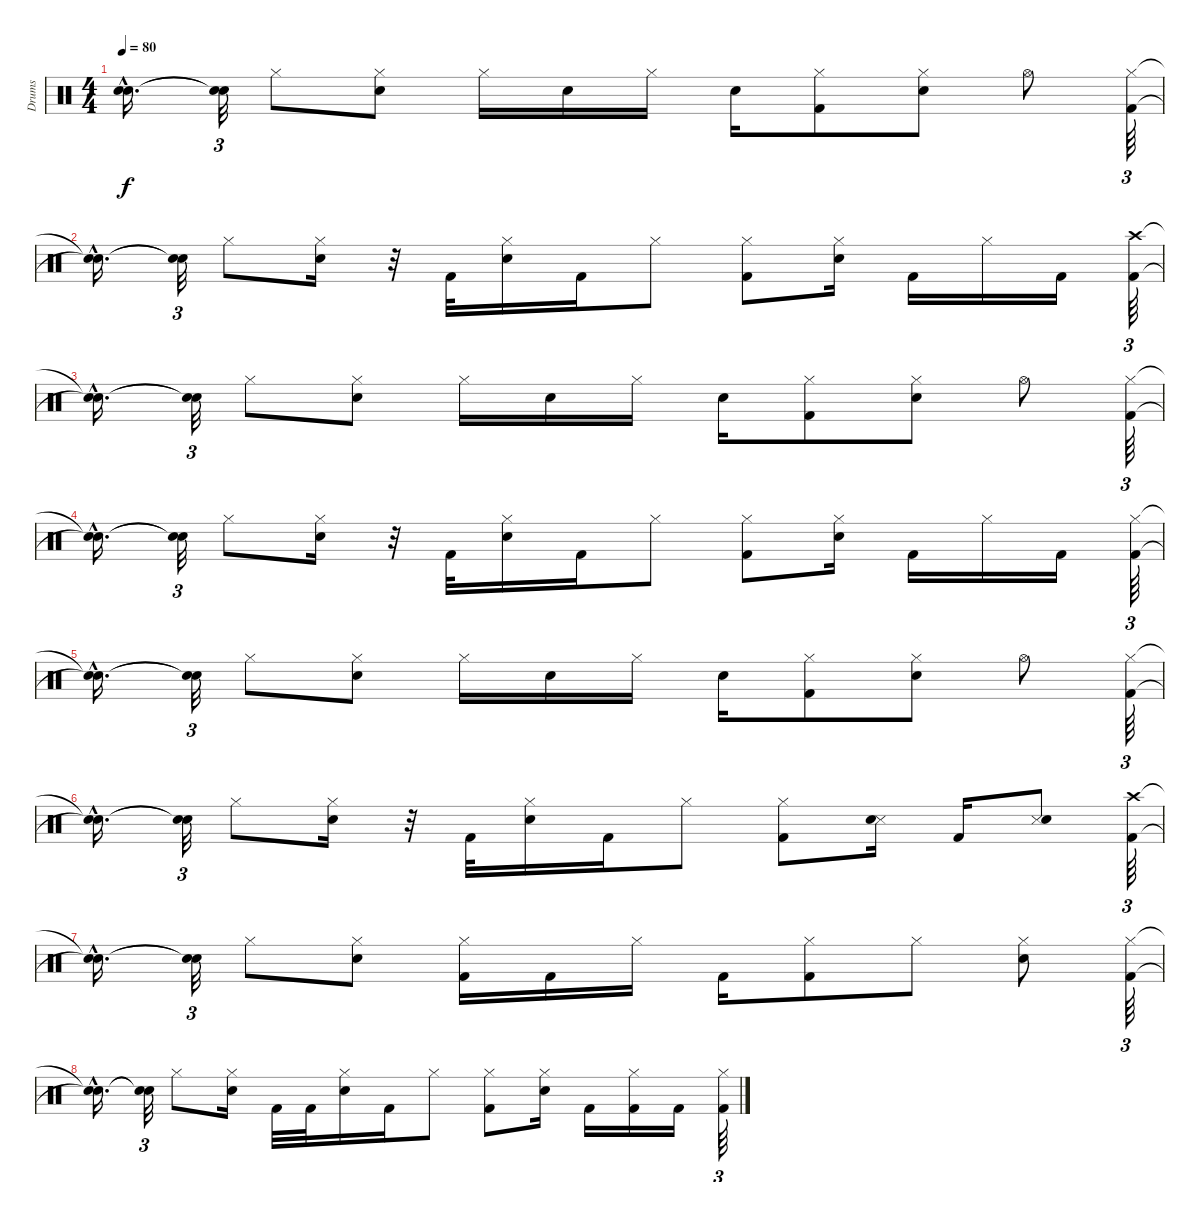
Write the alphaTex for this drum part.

\track ("Drums" "Drums") {instrument percussion}
\staff {score}
\articulation defaults
\ts (4 4)
\tempo 80
\clef neutral
\ks c
("Snare (hit)"{hac t} "Snare (hit)"{hac t}).16{d dy f} ("Snare (hit)"{t} "Snare (hit)"{t}).32{tu (3 2)} "Hi-Hat (closed)".8 ("Hi-Hat (closed)" "Electric Snare (hit)").8 "Hi-Hat (closed)".16 "Electric Snare (hit)".16 "Hi-Hat (closed)".16 "Electric Snare (hit)".16 ("Hi-Hat (closed)" "Kick (hit) 2").8 ("Hi-Hat (closed)" "Electric Snare (hit)").8 "Hi-Hat (open)".8 ("Hi-Hat (closed)" "Kick (hit) 2").64{tu (3 2)} |
("Snare (hit)"{hac t} "Snare (hit)"{hac t}).16{d} ("Snare (hit)"{t} "Snare (hit)"{t}).32{tu (3 2)} "Hi-Hat (closed)".8 ("Hi-Hat (closed)" "Electric Snare (hit)").16 r.32 "Kick (hit) 2".32 ("Hi-Hat (closed)" "Electric Snare (hit)").16 "Kick (hit) 2".16 "Hi-Hat (closed)".8 ("Hi-Hat (closed)" "Kick (hit) 2").8 ("Hi-Hat (closed)" "Electric Snare (hit)").16 "Kick (hit) 2".16 "Hi-Hat (closed)".16 "Kick (hit) 2".16 ("Crash high (hit)" "Kick (hit) 2").64{tu (3 2)} |
("Snare (hit)"{hac t} "Snare (hit)"{hac t}).16{d} ("Snare (hit)"{t} "Snare (hit)"{t}).32{tu (3 2)} "Hi-Hat (closed)".8 ("Hi-Hat (closed)" "Electric Snare (hit)").8 "Hi-Hat (closed)".16 "Electric Snare (hit)".16 "Hi-Hat (closed)".16 "Electric Snare (hit)".16 ("Hi-Hat (closed)" "Kick (hit) 2").8 ("Hi-Hat (closed)" "Electric Snare (hit)").8 "Hi-Hat (open)".8 ("Hi-Hat (closed)" "Kick (hit) 2").64{tu (3 2)} |
("Snare (hit)"{hac t} "Snare (hit)"{hac t}).16{d} ("Snare (hit)"{t} "Snare (hit)"{t}).32{tu (3 2)} "Hi-Hat (closed)".8 ("Hi-Hat (closed)" "Electric Snare (hit)").16 r.32 "Kick (hit) 2".32 ("Hi-Hat (closed)" "Electric Snare (hit)").16 "Kick (hit) 2".16 "Hi-Hat (closed)".8 ("Hi-Hat (closed)" "Kick (hit) 2").8 ("Hi-Hat (closed)" "Electric Snare (hit)").16 "Kick (hit) 2".16 "Hi-Hat (closed)".16 "Kick (hit) 2".16 ("Hi-Hat (closed)" "Kick (hit) 2").64{tu (3 2)} |
("Snare (hit)"{hac t} "Snare (hit)"{hac t}).16{d} ("Snare (hit)"{t} "Snare (hit)"{t}).32{tu (3 2)} "Hi-Hat (closed)".8 ("Hi-Hat (closed)" "Electric Snare (hit)").8 "Hi-Hat (closed)".16 "Electric Snare (hit)".16 "Hi-Hat (closed)".16 "Electric Snare (hit)".16 ("Hi-Hat (closed)" "Kick (hit) 2").8 ("Hi-Hat (closed)" "Electric Snare (hit)").8 "Hi-Hat (open)".8 ("Hi-Hat (closed)" "Kick (hit) 2").64{tu (3 2)} |
("Snare (hit)"{hac t} "Snare (hit)"{hac t}).16{d} ("Snare (hit)"{t} "Snare (hit)"{t}).32{tu (3 2)} "Hi-Hat (closed)".8 ("Hi-Hat (closed)" "Electric Snare (hit)").16 r.32 "Kick (hit) 2".32 ("Hi-Hat (closed)" "Electric Snare (hit)").16 "Kick (hit) 2".16 "Hi-Hat (closed)".8 ("Hi-Hat (closed)" "Kick (hit) 2").8 ("Snare (side stick) 3" "Electric Snare (hit)").16 "Kick (hit) 2".16 ("Snare (side stick) 3" "Electric Snare (hit)").8 ("Crash high (hit)" "Kick (hit) 2").64{tu (3 2)} |
("Snare (hit)"{hac t} "Snare (hit)"{hac t}).16{d} ("Snare (hit)"{t} "Snare (hit)"{t}).32{tu (3 2)} "Hi-Hat (closed)".8 ("Hi-Hat (closed)" "Electric Snare (hit)").8 ("Hi-Hat (closed)" "Kick (hit) 2").16 "Kick (hit) 2".16 "Hi-Hat (closed)".16 "Kick (hit) 2".16 ("Hi-Hat (closed)" "Kick (hit) 2").8 "Hi-Hat (closed)".8 ("Hi-Hat (closed)" "Electric Snare (hit)").8 ("Hi-Hat (closed)" "Kick (hit) 2").64{tu (3 2)} |
("Snare (hit)"{hac t} "Snare (hit)"{hac t}).16{d} ("Snare (hit)"{t} "Snare (hit)"{t}).32{tu (3 2)} "Hi-Hat (closed)".8 ("Hi-Hat (closed)" "Electric Snare (hit)").16 "Kick (hit) 2".32 "Kick (hit) 2".32 ("Hi-Hat (closed)" "Electric Snare (hit)").16 "Kick (hit) 2".16 "Hi-Hat (closed)".8 ("Hi-Hat (closed)" "Kick (hit) 2").8 ("Hi-Hat (closed)" "Electric Snare (hit)").16 "Kick (hit) 2".16 ("Hi-Hat (closed)" "Kick (hit) 2").16 "Kick (hit) 2".16 ("Hi-Hat (closed)" "Kick (hit) 2").64{tu (3 2)}
